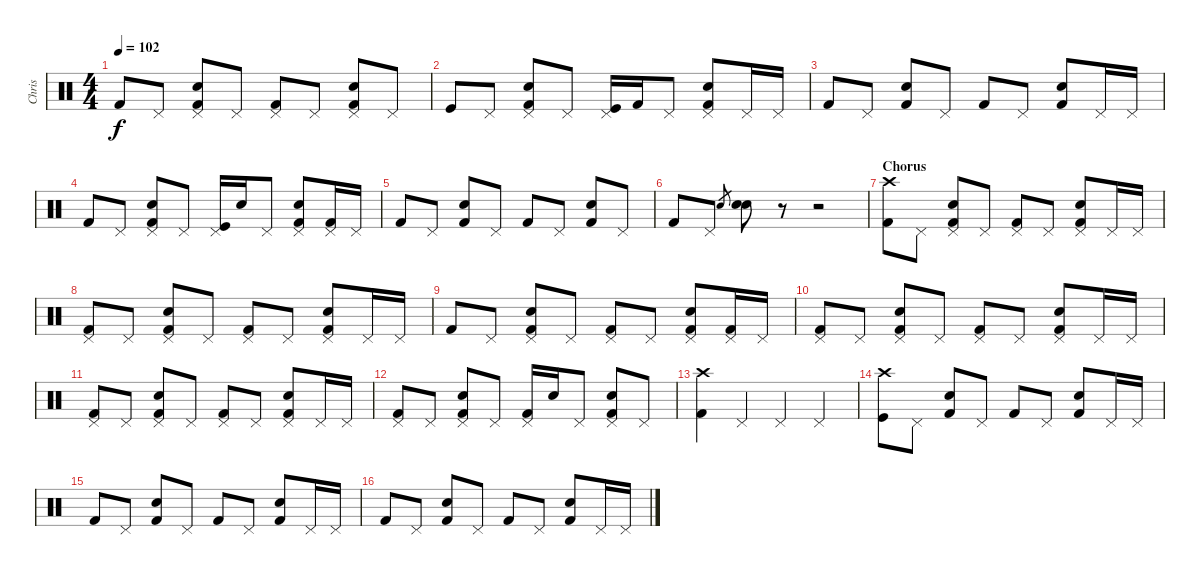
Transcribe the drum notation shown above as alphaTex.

\track ("Chris" "Chris") {instrument percussion}
\staff {score}
\articulation defaults
\ts (4 4)
\tempo 102
\clef neutral
\ks c "Kick (hit) 2".8{dy f} "Pedal Hi-Hat (hit)".8
("Pedal Hi-Hat (hit)" "Snare (hit) 2" "Kick (hit) 2").8 "Pedal Hi-Hat (hit)".8 ("Pedal Hi-Hat (hit)" "Kick (hit) 2").8 "Pedal Hi-Hat (hit)".8 ("Pedal Hi-Hat (hit)" "Snare (hit) 2" "Kick (hit) 2").8 "Pedal Hi-Hat (hit)".8 |
"Kick (hit)".8 "Pedal Hi-Hat (hit)".8 ("Pedal Hi-Hat (hit)" "Snare (hit) 2" "Kick (hit) 2").8 "Pedal Hi-Hat (hit)".8 ("Pedal Hi-Hat (hit)" "Kick (hit)").16 "Kick (hit) 2".16 "Pedal Hi-Hat (hit)".8 ("Pedal Hi-Hat (hit)" "Kick (hit) 2" "Snare (hit) 2").8 "Pedal Hi-Hat (hit)".16 "Pedal Hi-Hat (hit)".16 |
"Kick (hit) 2".8 "Pedal Hi-Hat (hit)".8 ("Snare (hit) 2" "Kick (hit) 2").8 "Pedal Hi-Hat (hit)".8 "Kick (hit) 2".8 "Pedal Hi-Hat (hit)".8 ("Snare (hit) 2" "Kick (hit) 2").8 "Pedal Hi-Hat (hit)".16 "Pedal Hi-Hat (hit)".16 |
"Kick (hit) 2".8 "Pedal Hi-Hat (hit)".8 ("Pedal Hi-Hat (hit)" "Snare (hit) 2" "Kick (hit) 2").8 "Pedal Hi-Hat (hit)".8 ("Pedal Hi-Hat (hit)" "Kick (hit)").16 "Snare (hit) 2".16 "Pedal Hi-Hat (hit)".8 ("Pedal Hi-Hat (hit)" "Snare (hit) 2" "Kick (hit) 2").8 ("Pedal Hi-Hat (hit)" "Kick (hit) 2").16 "Pedal Hi-Hat (hit)".16 |
"Kick (hit) 2".8 "Pedal Hi-Hat (hit)".8 ("Snare (hit) 2" "Kick (hit) 2").8 "Pedal Hi-Hat (hit)".8 "Kick (hit) 2".8 "Pedal Hi-Hat (hit)".8 ("Snare (hit) 2" "Kick (hit) 2").8 "Pedal Hi-Hat (hit)".8 |
"Kick (hit) 2".8 "Pedal Hi-Hat (hit)".8 "Snare (hit) 2".8{gr} ("Snare (hit) 2" "Snare (hit) 2").8 r.8 r.2 |
\section ("" "Chorus")
("Crash high (hit)" "Kick (hit) 2").8 "Pedal Hi-Hat (hit)".8 ("Pedal Hi-Hat (hit)" "Snare (hit) 2" "Kick (hit) 2").8 "Pedal Hi-Hat (hit)".8 ("Pedal Hi-Hat (hit)" "Kick (hit) 2").8 "Pedal Hi-Hat (hit)".8 ("Pedal Hi-Hat (hit)" "Snare (hit) 2" "Kick (hit) 2").8 "Pedal Hi-Hat (hit)".16 "Pedal Hi-Hat (hit)".16 |
("Pedal Hi-Hat (hit)" "Kick (hit) 2").8 "Pedal Hi-Hat (hit)".8 ("Pedal Hi-Hat (hit)" "Snare (hit) 2" "Kick (hit) 2").8 "Pedal Hi-Hat (hit)".8 ("Pedal Hi-Hat (hit)" "Kick (hit) 2").8 "Pedal Hi-Hat (hit)".8 ("Pedal Hi-Hat (hit)" "Snare (hit) 2" "Kick (hit) 2").8 "Pedal Hi-Hat (hit)".16 "Pedal Hi-Hat (hit)".16 |
"Kick (hit) 2".8 "Pedal Hi-Hat (hit)".8 ("Pedal Hi-Hat (hit)" "Snare (hit) 2" "Kick (hit) 2").8 "Pedal Hi-Hat (hit)".8 ("Pedal Hi-Hat (hit)" "Kick (hit) 2").8 "Pedal Hi-Hat (hit)".8 ("Pedal Hi-Hat (hit)" "Snare (hit) 2" "Kick (hit) 2").8 ("Pedal Hi-Hat (hit)" "Kick (hit) 2").16 "Pedal Hi-Hat (hit)".16 |
("Pedal Hi-Hat (hit)" "Kick (hit) 2").8 "Pedal Hi-Hat (hit)".8 ("Pedal Hi-Hat (hit)" "Snare (hit) 2" "Kick (hit) 2").8 "Pedal Hi-Hat (hit)".8 ("Pedal Hi-Hat (hit)" "Kick (hit) 2").8 "Pedal Hi-Hat (hit)".8 ("Pedal Hi-Hat (hit)" "Snare (hit) 2" "Kick (hit) 2").8 "Pedal Hi-Hat (hit)".16 "Pedal Hi-Hat (hit)".16 |
("Pedal Hi-Hat (hit)" "Kick (hit) 2").8 "Pedal Hi-Hat (hit)".8 ("Pedal Hi-Hat (hit)" "Snare (hit) 2" "Kick (hit) 2").8 "Pedal Hi-Hat (hit)".8 ("Pedal Hi-Hat (hit)" "Kick (hit) 2").8 "Pedal Hi-Hat (hit)".8 ("Pedal Hi-Hat (hit)" "Snare (hit) 2" "Kick (hit) 2").8 "Pedal Hi-Hat (hit)".16 "Pedal Hi-Hat (hit)".16 |
("Pedal Hi-Hat (hit)" "Kick (hit) 2").8 "Pedal Hi-Hat (hit)".8 ("Pedal Hi-Hat (hit)" "Snare (hit) 2" "Kick (hit) 2").8 "Pedal Hi-Hat (hit)".8 ("Pedal Hi-Hat (hit)" "Kick (hit) 2").16 "Snare (hit) 2".16 "Pedal Hi-Hat (hit)".8 ("Pedal Hi-Hat (hit)" "Snare (hit) 2" "Kick (hit) 2").8 "Pedal Hi-Hat (hit)".8 |
("Crash high (hit)" "Kick (hit) 2").4 "Pedal Hi-Hat (hit)".4 "Pedal Hi-Hat (hit)".4 "Pedal Hi-Hat (hit)".4 |
("Crash high (hit)" "Kick (hit)").8 "Pedal Hi-Hat (hit)".8 ("Snare (hit) 2" "Kick (hit) 2").8 "Pedal Hi-Hat (hit)".8 "Kick (hit) 2".8 "Pedal Hi-Hat (hit)".8 ("Snare (hit) 2" "Kick (hit) 2").8 "Pedal Hi-Hat (hit)".16 "Pedal Hi-Hat (hit)".16 |
"Kick (hit) 2".8 "Pedal Hi-Hat (hit)".8 ("Snare (hit) 2" "Kick (hit) 2").8 "Pedal Hi-Hat (hit)".8 "Kick (hit) 2".8 "Pedal Hi-Hat (hit)".8 ("Snare (hit) 2" "Kick (hit) 2").8 "Pedal Hi-Hat (hit)".16 "Pedal Hi-Hat (hit)".16 |
"Kick (hit) 2".8 "Pedal Hi-Hat (hit)".8 ("Snare (hit) 2" "Kick (hit) 2").8 "Pedal Hi-Hat (hit)".8 "Kick (hit) 2".8 "Pedal Hi-Hat (hit)".8 ("Snare (hit) 2" "Kick (hit) 2").8 "Pedal Hi-Hat (hit)".16 "Pedal Hi-Hat (hit)".16
